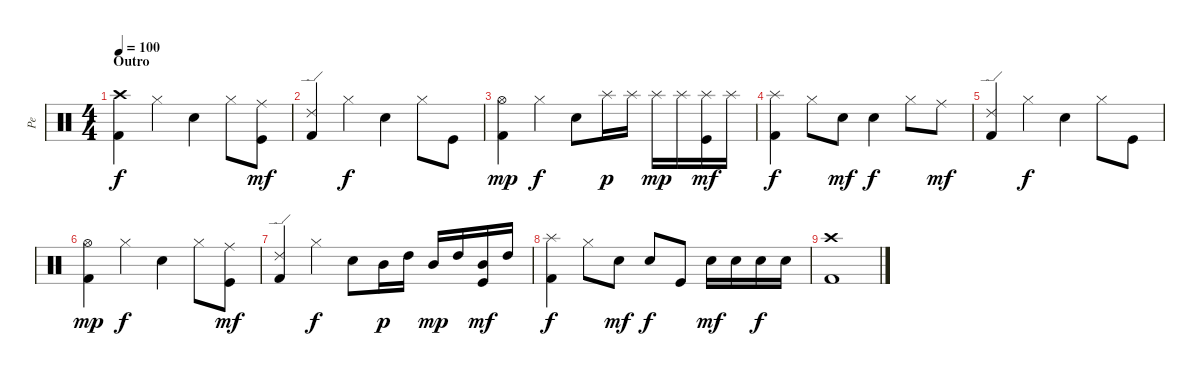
\track ("Pe" "Pe") {instrument percussion}
\staff {score}
\articulation defaults
\ts (4 4)
\section ("" "Outro")
\tempo 100
\clef neutral
\ks c
("Kick (hit) 2" "Crash high (hit)").4{dy f} "Hi-Hat (closed)".4 "Electric Snare (hit)".4 "Hi-Hat (closed)".8 ("Kick (hit)" "Ride (middle)").8{dy mf} |
("Kick (hit) 2" "Ride (edge) 2").4 "Hi-Hat (closed)".4{dy f} "Electric Snare (hit)".4 "Hi-Hat (closed)".8 "Kick (hit)".8 |
("Kick (hit) 2" "Hi-Hat (open)").4{dy mp} "Hi-Hat (closed)".4{dy f} "Electric Snare (hit)".8 "Splash (hit)".16{dy p} "Splash (hit)".16 "Splash (hit)".16{dy mp} "Splash (hit)".16 ("Kick (hit)" "Splash (hit)").16{dy mf} "Splash (hit)".16 |
("Kick (hit) 2" "Splash (hit)").4{dy f} "Hi-Hat (closed)".8 "Electric Snare (hit)".8{dy mf} "Electric Snare (hit)".4{dy f} "Hi-Hat (closed)".8 "Ride (middle)".8{dy mf} |
("Kick (hit) 2" "Ride (edge) 2").4 "Hi-Hat (closed)".4{dy f} "Electric Snare (hit)".4 "Hi-Hat (closed)".8 "Kick (hit)".8 |
("Kick (hit) 2" "Hi-Hat (open)").4{dy mp} "Hi-Hat (closed)".4{dy f} "Electric Snare (hit)".4 "Hi-Hat (closed)".8 ("Kick (hit)" "Ride (middle)").8{dy mf} |
("Kick (hit) 2" "Ride (edge) 2").4 "Hi-Hat (closed)".4{dy f} "Electric Snare (hit)".8 "Mid Tom (hit)".16{dy p} "High Tom (hit)".16 "Mid Tom (hit)".16{dy mp} "High Tom (hit)".16 ("Kick (hit)" "Mid Tom (hit)").16{dy mf} "High Tom (hit)".16 |
("Kick (hit) 2" "Splash (hit)").4{dy f} "Hi-Hat (closed)".8 "Electric Snare (hit)".8{dy mf} "Electric Snare (hit)".8{dy f} "Kick (hit)".8 "Electric Snare (hit)".16{dy mf} "Electric Snare (hit)".16 "Electric Snare (hit)".16{dy f} "Electric Snare (hit)".16 |
("Kick (hit) 2" "Crash high (hit)").1
